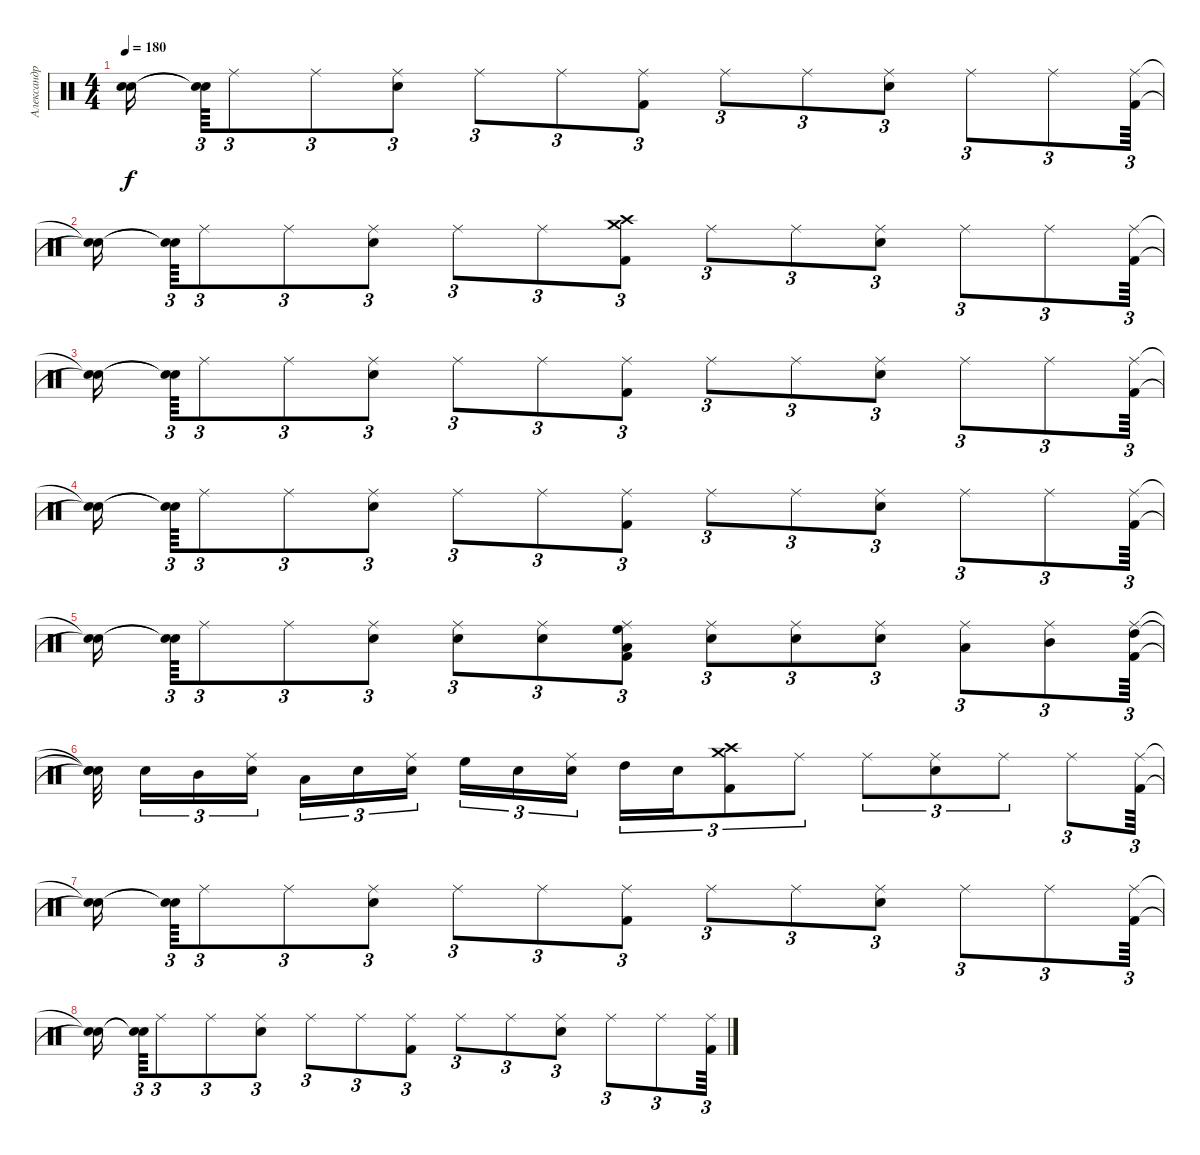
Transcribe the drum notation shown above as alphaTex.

\track ("Александр Карпухин" "Александр ") {instrument percussion}
\staff {score}
\articulation defaults
\ts (4 4)
\tempo 180
\clef neutral
\ks c
("Snare (hit)"{t} "Snare (hit)"{t}).16{dy f beam splitsecondary} ("Snare (hit)"{t} "Snare (hit)"{t}).64{tu (3 2)} "Ride (middle)".8{tu (3 2)} "Ride (middle)".8{tu (3 2)} ("Ride (middle)" "Snare (hit) 2").8{tu (3 2)} "Ride (middle)".8{tu (3 2)} "Ride (middle)".8{tu (3 2)} ("Ride (middle)" "Kick (hit) 2").8{tu (3 2)} "Ride (middle)".8{tu (3 2)} "Ride (middle)".8{tu (3 2)} ("Ride (middle)" "Snare (hit) 2").8{tu (3 2)} "Ride (middle)".8{tu (3 2)} "Ride (middle)".8{tu (3 2)} ("Ride (middle)" "Kick (hit) 2").64{tu (3 2)} |
("Snare (hit)"{t} "Snare (hit)"{t}).16{beam splitsecondary} ("Snare (hit)"{t} "Snare (hit)"{t}).64{tu (3 2)} "Ride (middle)".8{tu (3 2)} "Ride (middle)".8{tu (3 2)} ("Ride (middle)" "Snare (hit) 2").8{tu (3 2)} "Ride (middle)".8{tu (3 2)} "Ride (middle)".8{tu (3 2)} ("Crash high (hit)" "Crash medium (hit)" "Kick (hit) 2").8{tu (3 2)} "Ride (middle)".8{tu (3 2)} "Ride (middle)".8{tu (3 2)} ("Ride (middle)" "Snare (hit) 2").8{tu (3 2)} "Ride (middle)".8{tu (3 2)} "Ride (middle)".8{tu (3 2)} ("Ride (middle)" "Kick (hit) 2").64{tu (3 2)} |
("Snare (hit)"{t} "Snare (hit)"{t}).16{beam splitsecondary} ("Snare (hit)"{t} "Snare (hit)"{t}).64{tu (3 2)} "Ride (middle)".8{tu (3 2)} "Ride (middle)".8{tu (3 2)} ("Ride (middle)" "Snare (hit) 2").8{tu (3 2)} "Ride (middle)".8{tu (3 2)} "Ride (middle)".8{tu (3 2)} ("Ride (middle)" "Kick (hit) 2").8{tu (3 2)} "Ride (middle)".8{tu (3 2)} "Ride (middle)".8{tu (3 2)} ("Ride (middle)" "Snare (hit) 2").8{tu (3 2)} "Ride (middle)".8{tu (3 2)} "Ride (middle)".8{tu (3 2)} ("Ride (middle)" "Kick (hit) 2").64{tu (3 2)} |
("Snare (hit)"{t} "Snare (hit)"{t}).16{beam splitsecondary} ("Snare (hit)"{t} "Snare (hit)"{t}).64{tu (3 2)} "Ride (middle)".8{tu (3 2)} "Ride (middle)".8{tu (3 2)} ("Ride (middle)" "Snare (hit) 2").8{tu (3 2)} "Ride (middle)".8{tu (3 2)} "Ride (middle)".8{tu (3 2)} ("Ride (middle)" "Kick (hit) 2").8{tu (3 2)} "Ride (middle)".8{tu (3 2)} "Ride (middle)".8{tu (3 2)} ("Ride (middle)" "Snare (hit) 2").8{tu (3 2)} "Ride (middle)".8{tu (3 2)} "Ride (middle)".8{tu (3 2)} ("Ride (middle)" "Kick (hit) 2").64{tu (3 2)} |
("Snare (hit)"{t} "Snare (hit)"{t}).16{beam splitsecondary} ("Snare (hit)"{t} "Snare (hit)"{t}).64{tu (3 2)} "Ride (middle)".8{tu (3 2)} "Ride (middle)".8{tu (3 2)} ("Ride (middle)" "Snare (hit) 2").8{tu (3 2)} ("Ride (middle)" "Snare (hit) 2").8{tu (3 2)} ("Ride (middle)" "Snare (hit) 2").8{tu (3 2)} ("Ride (middle)" "High Floor Tom (hit)" "Low Tom (hit)" "Kick (hit) 2").8{tu (3 2)} ("Ride (middle)" "Snare (hit) 2").8{tu (3 2)} ("Ride (middle)" "Snare (hit) 2").8{tu (3 2)} ("Ride (middle)" "Snare (hit) 2").8{tu (3 2)} ("Ride (middle)" "Low Floor Tom (hit)").8{tu (3 2)} ("Ride (middle)" "Mid Tom (hit)").8{tu (3 2)} ("Ride (middle)" "High Tom (hit)" "Kick (hit) 2").64{tu (3 2)} |
("Snare (hit)"{t} "Snare (hit)"{t} "Snare (hit)"{t}).32{beam splitsecondary} "Snare (hit) 2".16{tu (3 2)} "Mid Tom (hit)".16{tu (3 2)} ("Ride (middle)" "Snare (hit) 2").16{tu (3 2) beam splitsecondary} "Low Tom (hit)".16{tu (3 2)} "Snare (hit) 2".16{tu (3 2)} ("Ride (middle)" "Snare (hit) 2").16{tu (3 2)} "High Floor Tom (hit)".16{tu (3 2)} "Snare (hit) 2".16{tu (3 2)} ("Ride (middle)" "Snare (hit) 2").16{tu (3 2) beam splitsecondary} "High Tom (hit)".16{tu (3 2)} "Snare (hit) 2".16{tu (3 2)} ("Crash high (hit)" "Crash medium (hit)" "Kick (hit) 2").8{tu (3 2)} "Ride (middle)".8{tu (3 2)} "Ride (middle)".8{tu (3 2)} ("Ride (middle)" "Snare (hit) 2").8{tu (3 2)} "Ride (middle)".8{tu (3 2)} "Ride (middle)".8{tu (3 2)} ("Ride (middle)" "Kick (hit) 2").64{tu (3 2)} |
("Snare (hit)"{t} "Snare (hit)"{t}).16{beam splitsecondary} ("Snare (hit)"{t} "Snare (hit)"{t}).64{tu (3 2)} "Ride (middle)".8{tu (3 2)} "Ride (middle)".8{tu (3 2)} ("Ride (middle)" "Snare (hit) 2").8{tu (3 2)} "Ride (middle)".8{tu (3 2)} "Ride (middle)".8{tu (3 2)} ("Ride (middle)" "Kick (hit) 2").8{tu (3 2)} "Ride (middle)".8{tu (3 2)} "Ride (middle)".8{tu (3 2)} ("Ride (middle)" "Snare (hit) 2").8{tu (3 2)} "Ride (middle)".8{tu (3 2)} "Ride (middle)".8{tu (3 2)} ("Ride (middle)" "Kick (hit) 2").64{tu (3 2)} |
("Snare (hit)"{t} "Snare (hit)"{t}).16{beam splitsecondary} ("Snare (hit)"{t} "Snare (hit)"{t}).64{tu (3 2)} "Ride (middle)".8{tu (3 2)} "Ride (middle)".8{tu (3 2)} ("Ride (middle)" "Snare (hit) 2").8{tu (3 2)} "Ride (middle)".8{tu (3 2)} "Ride (middle)".8{tu (3 2)} ("Ride (middle)" "Kick (hit) 2").8{tu (3 2)} "Ride (middle)".8{tu (3 2)} "Ride (middle)".8{tu (3 2)} ("Ride (middle)" "Snare (hit) 2").8{tu (3 2)} "Ride (middle)".8{tu (3 2)} "Ride (middle)".8{tu (3 2)} ("Ride (middle)" "Kick (hit) 2").64{tu (3 2)}
